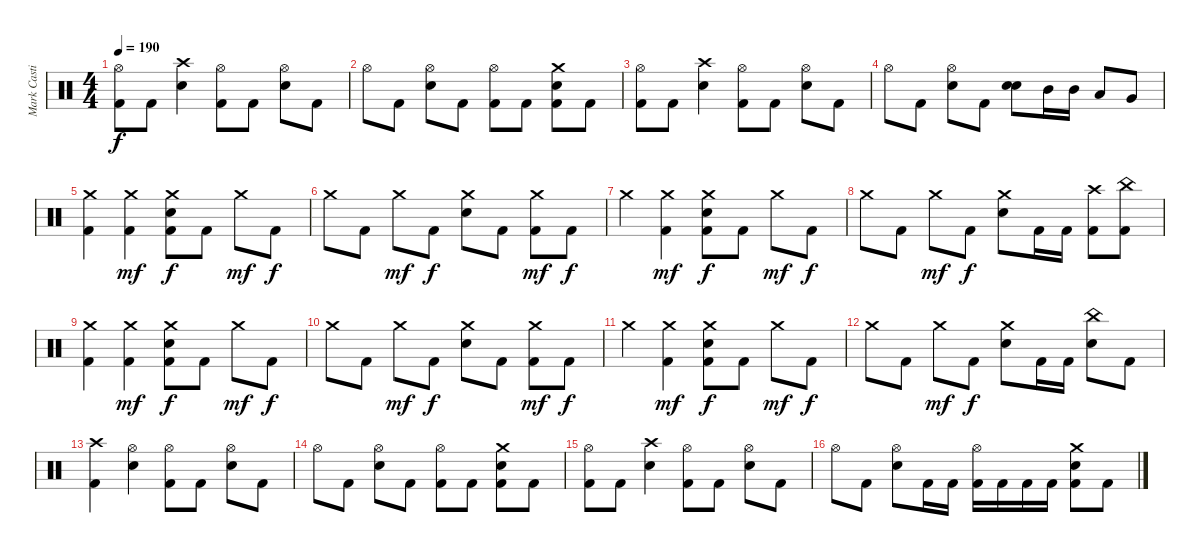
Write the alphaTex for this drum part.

\track ("Mark Castillo" "Mark Casti") {instrument percussion}
\staff {score}
\articulation defaults
\ts (4 4)
\tempo 190
\clef neutral
\ks c
("Hi-Hat (open)" "Kick (hit) 2").8{dy f} "Kick (hit) 2".8 ("Crash high (hit)" "Electric Snare (hit)").4 ("Hi-Hat (open)" "Kick (hit) 2").8 "Kick (hit) 2".8 ("Hi-Hat (open)" "Electric Snare (hit)").8 "Kick (hit) 2".8 |
"Hi-Hat (open)".8 "Kick (hit) 2".8 ("Hi-Hat (open)" "Electric Snare (hit)").8 "Kick (hit) 2".8 ("Hi-Hat (open)" "Kick (hit) 2").8 "Kick (hit) 2".8 ("Crash medium (hit)" "Electric Snare (hit)" "Kick (hit) 2").8 "Kick (hit) 2".8 |
("Hi-Hat (open)" "Kick (hit) 2").8 "Kick (hit) 2".8 ("Crash high (hit)" "Electric Snare (hit)").4 ("Hi-Hat (open)" "Kick (hit) 2").8 "Kick (hit) 2".8 ("Hi-Hat (open)" "Electric Snare (hit)").8 "Kick (hit) 2".8 |
"Hi-Hat (open)".8 "Kick (hit) 2".8 ("Hi-Hat (open)" "Electric Snare (hit)").8 "Kick (hit) 2".8 ("Electric Snare (hit)" "Electric Snare (hit)").8{bd 120} "Mid Tom (hit)".16 "Mid Tom (hit)".16 "Low Tom (hit)".8 "Very Low Tom (hit)".8 |
("Crash medium (hit)" "Kick (hit) 2").4 ("Crash medium (hit)" "Kick (hit) 2").4{dy mf} ("Crash medium (hit)" "Electric Snare (hit)" "Kick (hit) 2").8{dy f} "Kick (hit) 2".8 "Crash medium (hit)".8{dy mf} "Kick (hit) 2".8{dy f} |
"Crash medium (hit)".8 "Kick (hit) 2".8 "Crash medium (hit)".8{dy mf} "Kick (hit) 2".8{dy f} ("Crash medium (hit)" "Electric Snare (hit)").8 "Kick (hit) 2".8 ("Crash medium (hit)" "Kick (hit) 2").8{dy mf} "Kick (hit) 2".8{dy f} |
"Crash medium (hit)".4 ("Crash medium (hit)" "Kick (hit) 2").4{dy mf} ("Crash medium (hit)" "Electric Snare (hit)" "Kick (hit) 2").8{dy f} "Kick (hit) 2".8 "Crash medium (hit)".8{dy mf} "Kick (hit) 2".8{dy f} |
"Crash medium (hit)".8 "Kick (hit) 2".8 "Crash medium (hit)".8{dy mf} "Kick (hit) 2".8{dy f} ("Crash medium (hit)" "Electric Snare (hit)").8 "Kick (hit) 2".16 "Kick (hit) 2".16 ("Crash high (hit)" "Kick (hit) 2").8 ("China (hit)" "Kick (hit) 2").8 |
("Crash medium (hit)" "Kick (hit) 2").4 ("Crash medium (hit)" "Kick (hit) 2").4{dy mf} ("Crash medium (hit)" "Electric Snare (hit)" "Kick (hit) 2").8{dy f} "Kick (hit) 2".8 "Crash medium (hit)".8{dy mf} "Kick (hit) 2".8{dy f} |
"Crash medium (hit)".8 "Kick (hit) 2".8 "Crash medium (hit)".8{dy mf} "Kick (hit) 2".8{dy f} ("Crash medium (hit)" "Electric Snare (hit)").8 "Kick (hit) 2".8 ("Crash medium (hit)" "Kick (hit) 2").8{dy mf} "Kick (hit) 2".8{dy f} |
"Crash medium (hit)".4 ("Crash medium (hit)" "Kick (hit) 2").4{dy mf} ("Crash medium (hit)" "Electric Snare (hit)" "Kick (hit) 2").8{dy f} "Kick (hit) 2".8 "Crash medium (hit)".8{dy mf} "Kick (hit) 2".8{dy f} |
"Crash medium (hit)".8 "Kick (hit) 2".8 "Crash medium (hit)".8{dy mf} "Kick (hit) 2".8{dy f} ("Crash medium (hit)" "Electric Snare (hit)").8 "Kick (hit) 2".16 "Kick (hit) 2".16 ("China (hit)" "Electric Snare (hit)").8 "Kick (hit) 2".8 |
("Crash high (hit)" "Kick (hit) 2").4 ("Hi-Hat (open)" "Electric Snare (hit)").4 ("Hi-Hat (open)" "Kick (hit) 2").8 "Kick (hit) 2".8 ("Hi-Hat (open)" "Electric Snare (hit)").8 "Kick (hit) 2".8 |
"Hi-Hat (open)".8 "Kick (hit) 2".8 ("Hi-Hat (open)" "Electric Snare (hit)").8 "Kick (hit) 2".8 ("Hi-Hat (open)" "Kick (hit) 2").8 "Kick (hit) 2".8 ("Crash medium (hit)" "Electric Snare (hit)" "Kick (hit) 2").8 "Kick (hit) 2".8 |
("Hi-Hat (open)" "Kick (hit) 2").8 "Kick (hit) 2".8 ("Crash high (hit)" "Electric Snare (hit)").4 ("Hi-Hat (open)" "Kick (hit) 2").8 "Kick (hit) 2".8 ("Hi-Hat (open)" "Electric Snare (hit)").8 "Kick (hit) 2".8 |
"Hi-Hat (open)".8 "Kick (hit) 2".8 ("Hi-Hat (open)" "Electric Snare (hit)").8 "Kick (hit) 2".16 "Kick (hit) 2".16 ("Hi-Hat (open)" "Kick (hit) 2").16 "Kick (hit) 2".16 "Kick (hit) 2".16 "Kick (hit) 2".16 ("Crash medium (hit)" "Electric Snare (hit)" "Kick (hit) 2").8 "Kick (hit) 2".8
